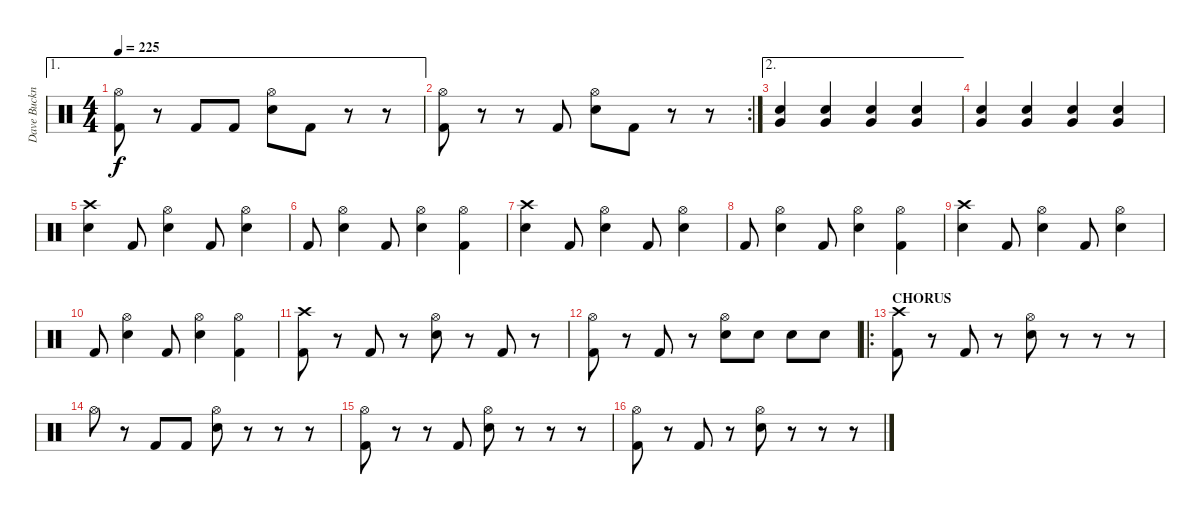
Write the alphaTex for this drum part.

\track ("Dave Buckner" "Dave Buckn") {instrument percussion}
\staff {score}
\articulation defaults
\ae 1
\ts (4 4)
\tempo 225
\clef neutral
\ks c
("Hi-Hat (open)" "Kick (hit) 2").8{dy f} r.8 "Kick (hit) 2".8 "Kick (hit) 2".8 ("Hi-Hat (open)" "Electric Snare (hit)").8 "Kick (hit) 2".8 r.8 r.8 |
\rc 2
("Hi-Hat (open)" "Kick (hit) 2").8 r.8 r.8 "Kick (hit) 2".8 ("Hi-Hat (open)" "Electric Snare (hit)").8 "Kick (hit) 2".8 r.8 r.8 |
\ae 2
("Very Low Tom (hit)" "Electric Snare (hit)").4{volume 8} ("Very Low Tom (hit)" "Electric Snare (hit)").4{volume 13} ("Very Low Tom (hit)" "Electric Snare (hit)").4 ("Very Low Tom (hit)" "Electric Snare (hit)").4 |
("Very Low Tom (hit)" "Electric Snare (hit)").4 ("Very Low Tom (hit)" "Electric Snare (hit)").4 ("Very Low Tom (hit)" "Electric Snare (hit)").4 ("Very Low Tom (hit)" "Electric Snare (hit)").4 |
("Crash high (hit)" "Electric Snare (hit)").4 "Kick (hit) 2".8 ("Hi-Hat (open)" "Electric Snare (hit)").4 "Kick (hit) 2".8 ("Hi-Hat (open)" "Electric Snare (hit)").4 |
"Kick (hit) 2".8 ("Hi-Hat (open)" "Electric Snare (hit)").4 "Kick (hit) 2".8 ("Hi-Hat (open)" "Electric Snare (hit)").4 ("Hi-Hat (open)" "Kick (hit) 2").4 |
("Crash high (hit)" "Electric Snare (hit)").4 "Kick (hit) 2".8 ("Hi-Hat (open)" "Electric Snare (hit)").4 "Kick (hit) 2".8 ("Hi-Hat (open)" "Electric Snare (hit)").4 |
"Kick (hit) 2".8 ("Hi-Hat (open)" "Electric Snare (hit)").4 "Kick (hit) 2".8 ("Hi-Hat (open)" "Electric Snare (hit)").4 ("Hi-Hat (open)" "Kick (hit) 2").4 |
("Crash high (hit)" "Electric Snare (hit)").4 "Kick (hit) 2".8 ("Hi-Hat (open)" "Electric Snare (hit)").4 "Kick (hit) 2".8 ("Hi-Hat (open)" "Electric Snare (hit)").4 |
"Kick (hit) 2".8 ("Hi-Hat (open)" "Electric Snare (hit)").4 "Kick (hit) 2".8 ("Hi-Hat (open)" "Electric Snare (hit)").4 ("Hi-Hat (open)" "Kick (hit) 2").4 |
("Crash high (hit)" "Kick (hit) 2").8 r.8 "Kick (hit) 2".8 r.8 ("Hi-Hat (open)" "Electric Snare (hit)").8 r.8 "Kick (hit) 2".8 r.8 |
("Hi-Hat (open)" "Kick (hit) 2").8 r.8 "Kick (hit) 2".8 r.8 ("Hi-Hat (open)" "Electric Snare (hit)").8 "Electric Snare (hit)".8 "Electric Snare (hit)".8 "Electric Snare (hit)".8 |
\ro
\section ("" "CHORUS")
("Crash high (hit)" "Kick (hit) 2").8 r.8 "Kick (hit) 2".8 r.8 ("Hi-Hat (open)" "Electric Snare (hit)").8 r.8 r.8 r.8 |
"Hi-Hat (open)".8 r.8 "Kick (hit) 2".8 "Kick (hit) 2".8 ("Hi-Hat (open)" "Electric Snare (hit)").8 r.8 r.8 r.8 |
("Hi-Hat (open)" "Kick (hit) 2").8 r.8 r.8 "Kick (hit) 2".8 ("Hi-Hat (open)" "Electric Snare (hit)").8 r.8 r.8 r.8 |
("Hi-Hat (open)" "Kick (hit) 2").8 r.8 "Kick (hit) 2".8 r.8 ("Hi-Hat (open)" "Electric Snare (hit)").8 r.8 r.8 r.8
